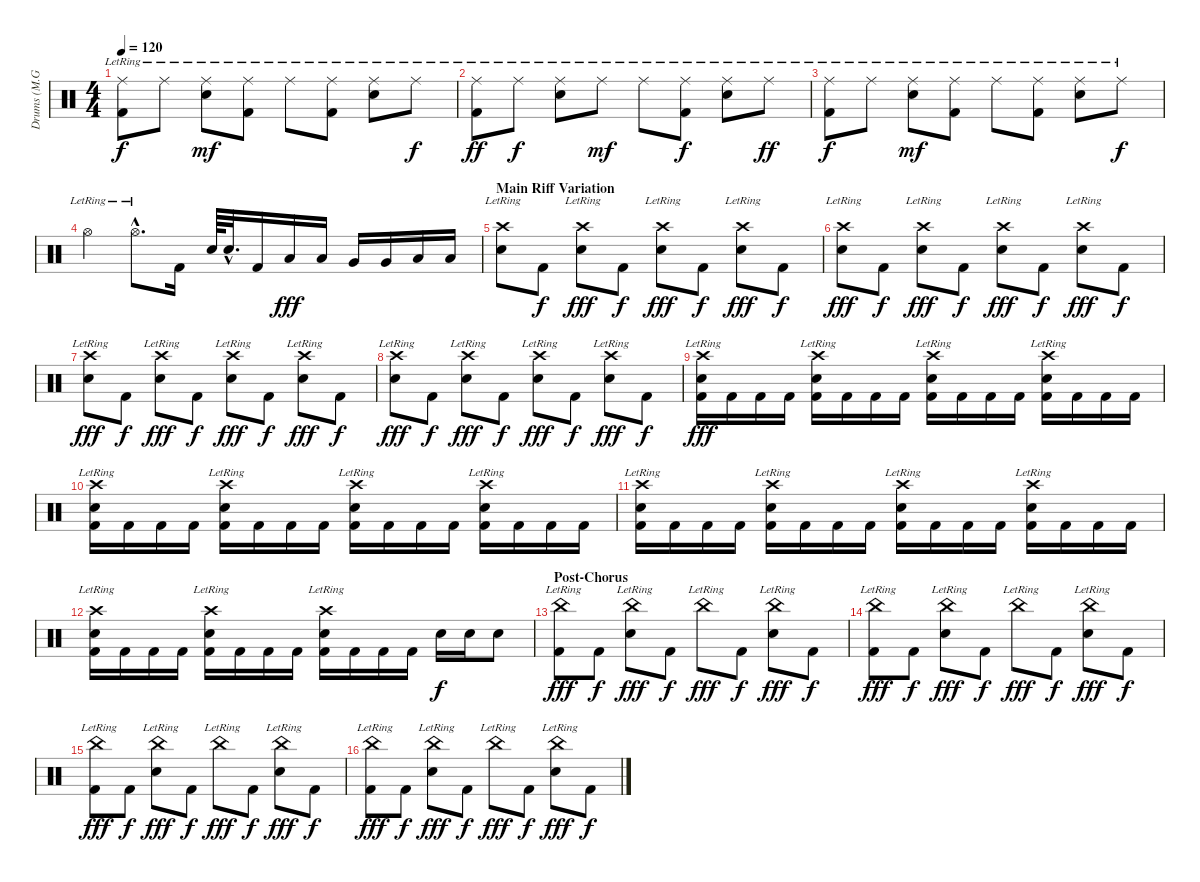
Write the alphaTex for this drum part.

\track ("Drums (M.Grosskopf)" "Drums (M.G") {instrument percussion}
\staff {score}
\articulation defaults
\ts (4 4)
\tempo 120
\clef neutral
\ks c
("Ride (middle)"{lr} "Kick (hit) 2").8{dy f} "Ride (middle)"{lr}.8 ("Ride (middle)"{lr} "Electric Snare (hit)").8{dy mf} ("Ride (middle)"{lr} "Kick (hit) 2").8 "Ride (middle)"{lr}.8 ("Ride (middle)"{lr} "Kick (hit) 2").8 ("Ride (middle)"{lr} "Electric Snare (hit)").8 "Ride (middle)"{lr}.8{dy f} |
("Ride (middle)"{lr} "Kick (hit) 2").8{dy ff} "Ride (middle)"{lr}.8{dy f} ("Ride (middle)"{lr} "Electric Snare (hit)").8 "Ride (middle)"{lr}.8{dy mf} "Ride (middle)"{lr}.8 ("Ride (middle)"{lr} "Kick (hit) 2").8{dy f} ("Ride (middle)"{lr} "Electric Snare (hit)").8 "Ride (middle)"{lr}.8{dy ff} |
("Ride (middle)"{lr} "Kick (hit) 2").8{dy f} "Ride (middle)"{lr}.8 ("Ride (middle)"{lr} "Electric Snare (hit)").8{dy mf} ("Ride (middle)"{lr} "Kick (hit) 2").8 "Ride (middle)"{lr}.8 ("Ride (middle)"{lr} "Kick (hit) 2").8 ("Ride (middle)"{lr} "Electric Snare (hit)").8 "Ride (middle)"{lr}.8{dy f} |
"Hi-Hat (open)"{lr}.4 "Hi-Hat (open)"{hac lr}.8{d} "Kick (hit) 2".16 "Electric Snare (hit)".64 "Electric Snare (hit)"{hac}.32{d} "Kick (hit) 2".16 "Low Tom (hit)".16{dy fff} "Low Tom (hit)".16 "Very Low Tom (hit)".16 "Very Low Tom (hit)".16 "Low Floor Tom (hit)".16 "Low Floor Tom (hit)".16 |
\section ("" "Main Riff Variation")
("Crash high (hit)"{lr} "Electric Snare (hit)").8 "Kick (hit) 2".8{dy f} ("Crash high (hit)"{lr} "Electric Snare (hit)").8{dy fff} "Kick (hit) 2".8{dy f} ("Crash high (hit)"{lr} "Electric Snare (hit)").8{dy fff} "Kick (hit) 2".8{dy f} ("Crash high (hit)"{lr} "Electric Snare (hit)").8{dy fff} "Kick (hit) 2".8{dy f} |
("Crash high (hit)"{lr} "Electric Snare (hit)").8{dy fff} "Kick (hit) 2".8{dy f} ("Crash high (hit)"{lr} "Electric Snare (hit)").8{dy fff} "Kick (hit) 2".8{dy f} ("Crash high (hit)"{lr} "Electric Snare (hit)").8{dy fff} "Kick (hit) 2".8{dy f} ("Crash high (hit)"{lr} "Electric Snare (hit)").8{dy fff} "Kick (hit) 2".8{dy f} |
("Crash high (hit)"{lr} "Electric Snare (hit)").8{dy fff} "Kick (hit) 2".8{dy f} ("Crash high (hit)"{lr} "Electric Snare (hit)").8{dy fff} "Kick (hit) 2".8{dy f} ("Crash high (hit)"{lr} "Electric Snare (hit)").8{dy fff} "Kick (hit) 2".8{dy f} ("Crash high (hit)"{lr} "Electric Snare (hit)").8{dy fff} "Kick (hit) 2".8{dy f} |
("Crash high (hit)"{lr} "Electric Snare (hit)").8{dy fff} "Kick (hit) 2".8{dy f} ("Crash high (hit)"{lr} "Electric Snare (hit)").8{dy fff} "Kick (hit) 2".8{dy f} ("Crash high (hit)"{lr} "Electric Snare (hit)").8{dy fff} "Kick (hit) 2".8{dy f} ("Crash high (hit)"{lr} "Electric Snare (hit)").8{dy fff} "Kick (hit) 2".8{dy f} |
("Crash high (hit)"{lr} "Electric Snare (hit)" "Kick (hit) 2").16{dy fff} "Kick (hit) 2".16 "Kick (hit) 2".16 "Kick (hit) 2".16 ("Crash high (hit)"{lr} "Electric Snare (hit)" "Kick (hit) 2").16 "Kick (hit) 2".16 "Kick (hit) 2".16 "Kick (hit) 2".16 ("Crash high (hit)"{lr} "Electric Snare (hit)" "Kick (hit) 2").16 "Kick (hit) 2".16 "Kick (hit) 2".16 "Kick (hit) 2".16 ("Crash high (hit)"{lr} "Electric Snare (hit)" "Kick (hit) 2").16 "Kick (hit) 2".16 "Kick (hit) 2".16 "Kick (hit) 2".16 |
("Crash high (hit)"{lr} "Electric Snare (hit)" "Kick (hit) 2").16 "Kick (hit) 2".16 "Kick (hit) 2".16 "Kick (hit) 2".16 ("Crash high (hit)"{lr} "Electric Snare (hit)" "Kick (hit) 2").16 "Kick (hit) 2".16 "Kick (hit) 2".16 "Kick (hit) 2".16 ("Crash high (hit)"{lr} "Electric Snare (hit)" "Kick (hit) 2").16 "Kick (hit) 2".16 "Kick (hit) 2".16 "Kick (hit) 2".16 ("Crash high (hit)"{lr} "Electric Snare (hit)" "Kick (hit) 2").16 "Kick (hit) 2".16 "Kick (hit) 2".16 "Kick (hit) 2".16 |
("Crash high (hit)"{lr} "Electric Snare (hit)" "Kick (hit) 2").16 "Kick (hit) 2".16 "Kick (hit) 2".16 "Kick (hit) 2".16 ("Crash high (hit)"{lr} "Electric Snare (hit)" "Kick (hit) 2").16 "Kick (hit) 2".16 "Kick (hit) 2".16 "Kick (hit) 2".16 ("Crash high (hit)"{lr} "Electric Snare (hit)" "Kick (hit) 2").16 "Kick (hit) 2".16 "Kick (hit) 2".16 "Kick (hit) 2".16 ("Crash high (hit)"{lr} "Electric Snare (hit)" "Kick (hit) 2").16 "Kick (hit) 2".16 "Kick (hit) 2".16 "Kick (hit) 2".16 |
("Crash high (hit)"{lr} "Electric Snare (hit)" "Kick (hit) 2").16 "Kick (hit) 2".16 "Kick (hit) 2".16 "Kick (hit) 2".16 ("Crash high (hit)"{lr} "Electric Snare (hit)" "Kick (hit) 2").16 "Kick (hit) 2".16 "Kick (hit) 2".16 "Kick (hit) 2".16 ("Crash high (hit)"{lr} "Electric Snare (hit)" "Kick (hit) 2").16 "Kick (hit) 2".16 "Kick (hit) 2".16 "Kick (hit) 2".16 "Electric Snare (hit)".16{dy f} "Electric Snare (hit)".16 "Electric Snare (hit)".8 |
\section ("" "Post-Chorus")
("China (hit)"{lr} "Kick (hit) 2").8{dy fff} "Kick (hit) 2".8{dy f} ("China (hit)"{lr} "Electric Snare (hit)").8{dy fff} "Kick (hit) 2".8{dy f} "China (hit)"{lr}.8{dy fff} "Kick (hit) 2".8{dy f} ("China (hit)"{lr} "Electric Snare (hit)").8{dy fff} "Kick (hit) 2".8{dy f} |
("China (hit)"{lr} "Kick (hit) 2").8{dy fff} "Kick (hit) 2".8{dy f} ("China (hit)"{lr} "Electric Snare (hit)").8{dy fff} "Kick (hit) 2".8{dy f} "China (hit)"{lr}.8{dy fff} "Kick (hit) 2".8{dy f} ("China (hit)"{lr} "Electric Snare (hit)").8{dy fff} "Kick (hit) 2".8{dy f} |
("China (hit)"{lr} "Kick (hit) 2").8{dy fff} "Kick (hit) 2".8{dy f} ("China (hit)"{lr} "Electric Snare (hit)").8{dy fff} "Kick (hit) 2".8{dy f} "China (hit)"{lr}.8{dy fff} "Kick (hit) 2".8{dy f} ("China (hit)"{lr} "Electric Snare (hit)").8{dy fff} "Kick (hit) 2".8{dy f} |
("China (hit)"{lr} "Kick (hit) 2").8{dy fff} "Kick (hit) 2".8{dy f} ("China (hit)"{lr} "Electric Snare (hit)").8{dy fff} "Kick (hit) 2".8{dy f} "China (hit)"{lr}.8{dy fff} "Kick (hit) 2".8{dy f} ("China (hit)"{lr} "Electric Snare (hit)").8{dy fff} "Kick (hit) 2".8{dy f}
